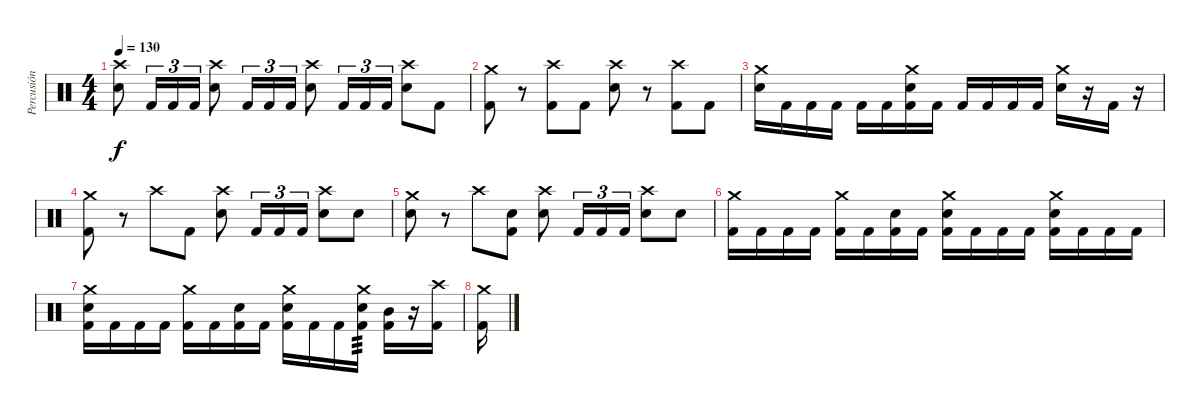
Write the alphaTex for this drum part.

\track ("Percusión" "Percusión") {instrument percussion}
\staff {score}
\articulation defaults
\ts (4 4)
\tempo 130
\clef neutral
\ks c
("Crash high (hit)" "Electric Snare (hit)").8{dy f} "Kick (hit) 2".16{tu (3 2)} "Kick (hit) 2".16{tu (3 2)} "Kick (hit) 2".16{tu (3 2)} ("Crash high (hit)" "Electric Snare (hit)").8 "Kick (hit) 2".16{tu (3 2)} "Kick (hit) 2".16{tu (3 2)} "Kick (hit) 2".16{tu (3 2)} ("Crash high (hit)" "Electric Snare (hit)").8 "Kick (hit) 2".16{tu (3 2)} "Kick (hit) 2".16{tu (3 2)} "Kick (hit) 2".16{tu (3 2)} ("Crash high (hit)" "Electric Snare (hit)").8 "Kick (hit) 2".8 |
("Crash medium (hit)" "Kick (hit) 2").8 r.8 ("Crash high (hit)" "Kick (hit) 2").8 "Kick (hit) 2".8 ("Crash high (hit)" "Electric Snare (hit)").8 r.8 ("Crash high (hit)" "Kick (hit) 2").8 "Kick (hit) 2".8 |
("Crash medium (hit)" "Electric Snare (hit)").16 "Kick (hit) 2".16 "Kick (hit) 2".16 "Kick (hit) 2".16 "Kick (hit) 2".16 "Kick (hit) 2".16 ("Crash medium (hit)" "Electric Snare (hit)" "Kick (hit) 2").16 "Kick (hit) 2".16 "Kick (hit) 2".16 "Kick (hit) 2".16 "Kick (hit) 2".16 "Kick (hit) 2".16 ("Crash medium (hit)" "Electric Snare (hit)").16 r.16 "Kick (hit) 2".16 r.16 |
("Crash medium (hit)" "Kick (hit) 2").8 r.8 "Crash high (hit)".8 "Kick (hit) 2".8 ("Crash high (hit)" "Electric Snare (hit)").8 "Kick (hit) 2".16{tu (3 2)} "Kick (hit) 2".16{tu (3 2)} "Kick (hit) 2".16{tu (3 2)} ("Crash high (hit)" "Electric Snare (hit)").8 "Electric Snare (hit)".8 |
("Crash medium (hit)" "Electric Snare (hit)").8 r.8 "Crash high (hit)".8 ("Kick (hit) 2" "Electric Snare (hit)").8 ("Crash high (hit)" "Electric Snare (hit)").8 "Kick (hit) 2".16{tu (3 2)} "Kick (hit) 2".16{tu (3 2)} "Kick (hit) 2".16{tu (3 2)} ("Crash high (hit)" "Electric Snare (hit)").8 "Electric Snare (hit)".8 |
("Crash medium (hit)" "Kick (hit) 2").16 "Kick (hit) 2".16 "Kick (hit) 2".16 "Kick (hit) 2".16 ("Crash medium (hit)" "Kick (hit) 2").16 "Kick (hit) 2".16 ("Electric Snare (hit)" "Kick (hit) 2").16 "Kick (hit) 2".16 ("Crash medium (hit)" "Electric Snare (hit)" "Kick (hit) 2").16 "Kick (hit) 2".16 "Kick (hit) 2".16 "Kick (hit) 2".16 ("Crash medium (hit)" "Electric Snare (hit)" "Kick (hit) 2").16 "Kick (hit) 2".16 "Kick (hit) 2".16 "Kick (hit) 2".16 |
("Crash medium (hit)" "Electric Snare (hit)" "Kick (hit) 2").16 "Kick (hit) 2".16 "Kick (hit) 2".16 "Kick (hit) 2".16 ("Crash medium (hit)" "Kick (hit) 2").16 "Kick (hit) 2".16 ("Electric Snare (hit)" "Kick (hit) 2").16 "Kick (hit) 2".16 ("Crash medium (hit)" "Electric Snare (hit)" "Kick (hit) 2").16 "Kick (hit) 2".16 "Kick (hit) 2".16 ("Crash medium (hit)" "Electric Snare (hit)" "Kick (hit) 2").16{tp 3} ("Mid Tom (hit)" "Kick (hit) 2").16 r.16 ("Crash high (hit)" "Kick (hit) 2").16 |
("Crash medium (hit)" "Kick (hit) 2").16
